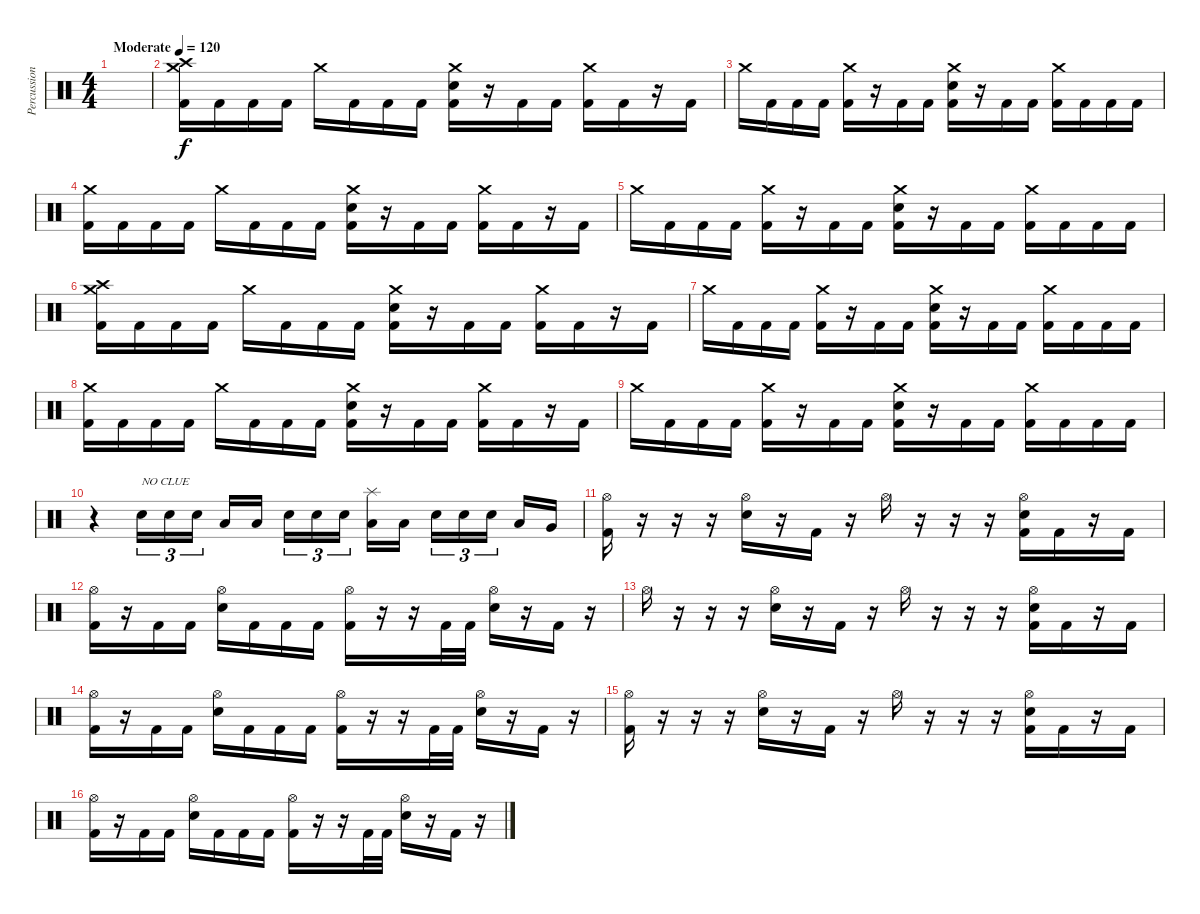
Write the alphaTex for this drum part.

\track ("Percussion" "Percussion") {instrument percussion}
\staff {score}
\articulation defaults
\ts (4 4)
\tempo (120 "Moderate")
\clef neutral
\ks c
|
("Crash medium (hit)" "Crash high (hit)" "Kick (hit) 2").16 "Kick (hit) 2".16 "Kick (hit) 2".16 "Kick (hit) 2".16 "Crash medium (hit)".16 "Kick (hit) 2".16 "Kick (hit) 2".16 "Kick (hit) 2".16 ("Crash medium (hit)" "Electric Snare (hit)" "Kick (hit) 2").16 r.16 "Kick (hit) 2".16 "Kick (hit) 2".16 ("Crash medium (hit)" "Kick (hit) 2").16 "Kick (hit) 2".16 r.16 "Kick (hit) 2".16 |
"Crash medium (hit)".16 "Kick (hit) 2".16 "Kick (hit) 2".16 "Kick (hit) 2".16 ("Crash medium (hit)" "Kick (hit) 2").16 r.16 "Kick (hit) 2".16 "Kick (hit) 2".16 ("Crash medium (hit)" "Electric Snare (hit)" "Kick (hit) 2").16 r.16 "Kick (hit) 2".16 "Kick (hit) 2".16 ("Crash medium (hit)" "Kick (hit) 2").16 "Kick (hit) 2".16 "Kick (hit) 2".16 "Kick (hit) 2".16 |
("Crash medium (hit)" "Kick (hit) 2").16 "Kick (hit) 2".16 "Kick (hit) 2".16 "Kick (hit) 2".16 "Crash medium (hit)".16 "Kick (hit) 2".16 "Kick (hit) 2".16 "Kick (hit) 2".16 ("Crash medium (hit)" "Electric Snare (hit)" "Kick (hit) 2").16 r.16 "Kick (hit) 2".16 "Kick (hit) 2".16 ("Crash medium (hit)" "Kick (hit) 2").16 "Kick (hit) 2".16 r.16 "Kick (hit) 2".16 |
"Crash medium (hit)".16 "Kick (hit) 2".16 "Kick (hit) 2".16 "Kick (hit) 2".16 ("Crash medium (hit)" "Kick (hit) 2").16 r.16 "Kick (hit) 2".16 "Kick (hit) 2".16 ("Crash medium (hit)" "Electric Snare (hit)" "Kick (hit) 2").16 r.16 "Kick (hit) 2".16 "Kick (hit) 2".16 ("Crash medium (hit)" "Kick (hit) 2").16 "Kick (hit) 2".16 "Kick (hit) 2".16 "Kick (hit) 2".16 |
("Crash medium (hit)" "Crash high (hit)" "Kick (hit) 2").16 "Kick (hit) 2".16 "Kick (hit) 2".16 "Kick (hit) 2".16 "Crash medium (hit)".16 "Kick (hit) 2".16 "Kick (hit) 2".16 "Kick (hit) 2".16 ("Crash medium (hit)" "Electric Snare (hit)" "Kick (hit) 2").16 r.16 "Kick (hit) 2".16 "Kick (hit) 2".16 ("Crash medium (hit)" "Kick (hit) 2").16 "Kick (hit) 2".16 r.16 "Kick (hit) 2".16 |
"Crash medium (hit)".16 "Kick (hit) 2".16 "Kick (hit) 2".16 "Kick (hit) 2".16 ("Crash medium (hit)" "Kick (hit) 2").16 r.16 "Kick (hit) 2".16 "Kick (hit) 2".16 ("Crash medium (hit)" "Electric Snare (hit)" "Kick (hit) 2").16 r.16 "Kick (hit) 2".16 "Kick (hit) 2".16 ("Crash medium (hit)" "Kick (hit) 2").16 "Kick (hit) 2".16 "Kick (hit) 2".16 "Kick (hit) 2".16 |
("Crash medium (hit)" "Kick (hit) 2").16 "Kick (hit) 2".16 "Kick (hit) 2".16 "Kick (hit) 2".16 "Crash medium (hit)".16 "Kick (hit) 2".16 "Kick (hit) 2".16 "Kick (hit) 2".16 ("Crash medium (hit)" "Electric Snare (hit)" "Kick (hit) 2").16 r.16 "Kick (hit) 2".16 "Kick (hit) 2".16 ("Crash medium (hit)" "Kick (hit) 2").16 "Kick (hit) 2".16 r.16 "Kick (hit) 2".16 |
"Crash medium (hit)".16 "Kick (hit) 2".16 "Kick (hit) 2".16 "Kick (hit) 2".16 ("Crash medium (hit)" "Kick (hit) 2").16 r.16 "Kick (hit) 2".16 "Kick (hit) 2".16 ("Crash medium (hit)" "Electric Snare (hit)" "Kick (hit) 2").16 r.16 "Kick (hit) 2".16 "Kick (hit) 2".16 ("Crash medium (hit)" "Kick (hit) 2").16 "Kick (hit) 2".16 "Kick (hit) 2".16 "Kick (hit) 2".16 |
r.4 "Electric Snare (hit)".16{tu (3 2) txt "NO CLUE"} "Electric Snare (hit)".16{tu (3 2)} "Electric Snare (hit)".16{tu (3 2) beam splitsecondary} "Low Tom (hit)".16 "Low Floor Tom (hit)".16 "Electric Snare (hit)".16{tu (3 2)} "Electric Snare (hit)".16{tu (3 2)} "Electric Snare (hit)".16{tu (3 2) beam splitsecondary} ("Splash (hit)" "Low Tom (hit)").16 "Low Tom (hit)".16 "Electric Snare (hit)".16{tu (3 2)} "Electric Snare (hit)".16{tu (3 2)} "Electric Snare (hit)".16{tu (3 2) beam splitsecondary} "Low Tom (hit)".16 "Very Low Tom (hit)".16 |
("Hi-Hat (open)" "Kick (hit) 2").16 r.16 r.16 r.16 ("Hi-Hat (open)" "Electric Snare (hit)").16 r.16 "Kick (hit) 2".16 r.16 "Hi-Hat (open)".16 r.16 r.16 r.16 ("Hi-Hat (open)" "Electric Snare (hit)" "Kick (hit) 2").16 "Kick (hit) 2".16 r.16 "Kick (hit) 2".16 |
("Hi-Hat (open)" "Kick (hit) 2").16 r.16 "Kick (hit) 2".16 "Kick (hit) 2".16 ("Hi-Hat (open)" "Electric Snare (hit)").16 "Kick (hit) 2".16 "Kick (hit) 2".16 "Kick (hit) 2".16 ("Hi-Hat (open)" "Kick (hit) 2").16 r.16 r.16 "Kick (hit) 2".32 "Kick (hit) 2".32 ("Hi-Hat (open)" "Electric Snare (hit)").16 r.16 "Kick (hit) 2".16 r.16 |
"Hi-Hat (open)".16 r.16 r.16 r.16 ("Hi-Hat (open)" "Electric Snare (hit)").16 r.16 "Kick (hit) 2".16 r.16 "Hi-Hat (open)".16 r.16 r.16 r.16 ("Hi-Hat (open)" "Electric Snare (hit)" "Kick (hit) 2").16 "Kick (hit) 2".16 r.16 "Kick (hit) 2".16 |
("Hi-Hat (open)" "Kick (hit) 2").16 r.16 "Kick (hit) 2".16 "Kick (hit) 2".16 ("Hi-Hat (open)" "Electric Snare (hit)").16 "Kick (hit) 2".16 "Kick (hit) 2".16 "Kick (hit) 2".16 ("Hi-Hat (open)" "Kick (hit) 2").16 r.16 r.16 "Kick (hit) 2".32 "Kick (hit) 2".32 ("Hi-Hat (open)" "Electric Snare (hit)").16 r.16 "Kick (hit) 2".16 r.16 |
("Hi-Hat (open)" "Kick (hit) 2").16 r.16 r.16 r.16 ("Hi-Hat (open)" "Electric Snare (hit)").16 r.16 "Kick (hit) 2".16 r.16 "Hi-Hat (open)".16 r.16 r.16 r.16 ("Hi-Hat (open)" "Electric Snare (hit)" "Kick (hit) 2").16 "Kick (hit) 2".16 r.16 "Kick (hit) 2".16 |
("Hi-Hat (open)" "Kick (hit) 2").16 r.16 "Kick (hit) 2".16 "Kick (hit) 2".16 ("Hi-Hat (open)" "Electric Snare (hit)").16 "Kick (hit) 2".16 "Kick (hit) 2".16 "Kick (hit) 2".16 ("Hi-Hat (open)" "Kick (hit) 2").16 r.16 r.16 "Kick (hit) 2".32 "Kick (hit) 2".32 ("Hi-Hat (open)" "Electric Snare (hit)").16 r.16 "Kick (hit) 2".16 r.16
